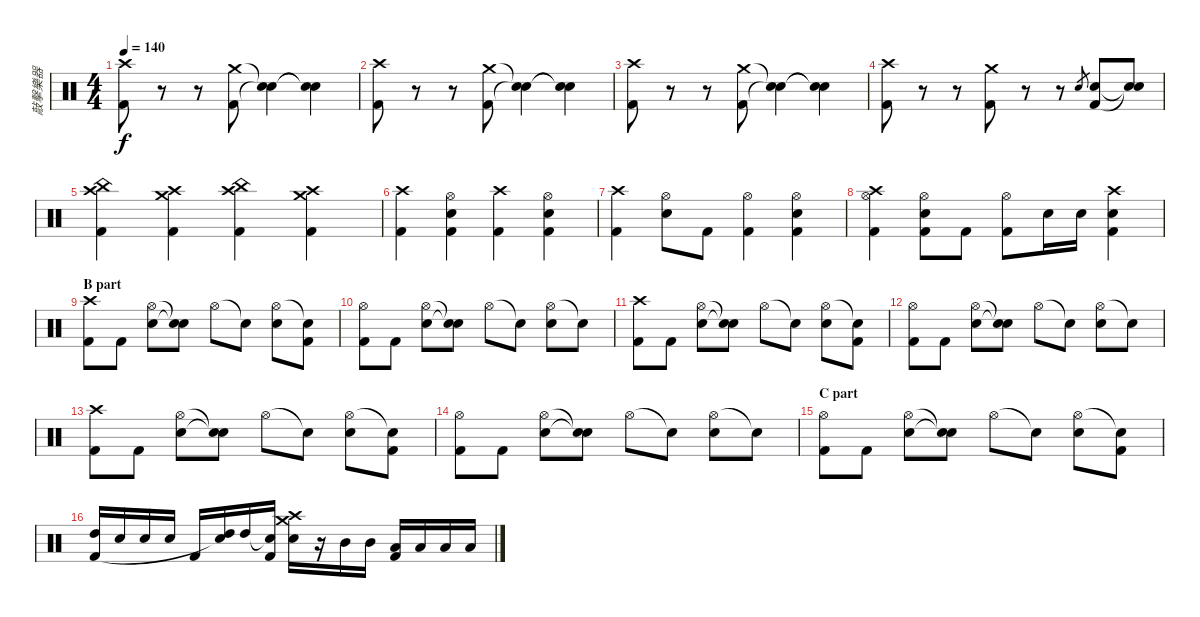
\track ("敲擊樂器" "敲擊樂器") {instrument percussion}
\staff {score}
\articulation defaults
\ts (4 4)
\tempo 140
\clef neutral
\ks c
("Crash high (hit)" "Kick (hit) 2").8{dy f} r.8 r.8 ("Crash medium (hit)" "Kick (hit) 2").8 ("Snare (hit)"{t} "Snare (hit)"{t}).4 ("Snare (hit)"{t} "Snare (hit)"{t}).4 |
("Crash high (hit)" "Kick (hit) 2").8 r.8 r.8 ("Crash medium (hit)" "Kick (hit) 2").8 ("Snare (hit)"{t} "Snare (hit)"{t}).4 ("Snare (hit)"{t} "Snare (hit)"{t}).4 |
("Crash high (hit)" "Kick (hit) 2").8 r.8 r.8 ("Crash medium (hit)" "Kick (hit) 2").8 ("Snare (hit)"{t} "Snare (hit)"{t}).4 ("Snare (hit)"{t} "Snare (hit)"{t}).4 |
("Crash high (hit)" "Kick (hit) 2").8 r.8 r.8 ("Crash medium (hit)" "Kick (hit) 2").8 r.8 r.8 "Snare (hit) 2".8{gr} ("Snare (hit) 2" "Kick (hit) 2").8 ("Snare (hit)"{t} "Snare (hit)"{t}).8 |
("Crash high (hit)" "China (hit)" "Kick (hit) 2").4 ("Crash high (hit)" "Crash medium (hit)" "Kick (hit) 2").4 ("Crash high (hit)" "China (hit)" "Kick (hit) 2").4 ("Crash high (hit)" "Crash medium (hit)" "Kick (hit) 2").4 |
("Crash high (hit)" "Kick (hit) 2").4 ("Hi-Hat (open)" "Snare (hit) 2" "Kick (hit) 2").4 ("Crash high (hit)" "Kick (hit) 2").4 ("Hi-Hat (open)" "Snare (hit) 2" "Kick (hit) 2").4 |
("Crash high (hit)" "Kick (hit) 2").4 ("Hi-Hat (open)" "Snare (hit) 2").8 "Kick (hit) 2".8 ("Hi-Hat (open)" "Kick (hit) 2").4 ("Hi-Hat (open)" "Snare (hit) 2" "Kick (hit) 2").4 |
("Crash high (hit)" "Hi-Hat (open)" "Kick (hit) 2").4 ("Hi-Hat (open)" "Snare (hit) 2" "Kick (hit) 2").8 "Kick (hit) 2".8 ("Hi-Hat (open)" "Kick (hit) 2").8 "Snare (hit) 2".16 "Snare (hit) 2".16 ("Crash high (hit)" "Snare (hit) 2" "Kick (hit) 2").4 |
\section ("" "B part")
("Crash high (hit)" "Kick (hit) 2").8 "Kick (hit) 2".8 ("Hi-Hat (open)" "Snare (hit) 2").8 ("Snare (hit)"{t} "Snare (hit)"{t}).8 "Hi-Hat (open)".8 "Snare (hit)"{t}.8 ("Hi-Hat (open)" "Snare (hit) 2").8 ("Snare (hit)"{t} "Kick (hit) 2").8 |
("Hi-Hat (open)" "Kick (hit) 2").8 "Kick (hit) 2".8 ("Hi-Hat (open)" "Snare (hit) 2").8 ("Snare (hit)"{t} "Snare (hit)"{t}).8 "Hi-Hat (open)".8 "Snare (hit)"{t}.8 ("Hi-Hat (open)" "Snare (hit) 2").8 "Snare (hit)"{t}.8 |
("Crash high (hit)" "Kick (hit) 2").8 "Kick (hit) 2".8 ("Hi-Hat (open)" "Snare (hit) 2").8 ("Snare (hit)"{t} "Snare (hit)"{t}).8 "Hi-Hat (open)".8 "Snare (hit)"{t}.8 ("Hi-Hat (open)" "Snare (hit) 2").8 ("Snare (hit)"{t} "Kick (hit) 2").8 |
("Hi-Hat (open)" "Kick (hit) 2").8 "Kick (hit) 2".8 ("Hi-Hat (open)" "Snare (hit) 2").8 ("Snare (hit)"{t} "Snare (hit)"{t}).8 "Hi-Hat (open)".8 "Snare (hit)"{t}.8 ("Hi-Hat (open)" "Snare (hit) 2").8 "Snare (hit)"{t}.8 |
("Crash high (hit)" "Kick (hit) 2").8 "Kick (hit) 2".8 ("Hi-Hat (open)" "Snare (hit) 2").8 ("Snare (hit)"{t} "Snare (hit)"{t}).8 "Hi-Hat (open)".8 "Snare (hit)"{t}.8 ("Hi-Hat (open)" "Snare (hit) 2").8 ("Snare (hit)"{t} "Kick (hit) 2").8 |
("Hi-Hat (open)" "Kick (hit) 2").8 "Kick (hit) 2".8 ("Hi-Hat (open)" "Snare (hit) 2").8 ("Snare (hit)"{t} "Snare (hit)"{t}).8 "Hi-Hat (open)".8 "Snare (hit)"{t}.8 ("Hi-Hat (open)" "Snare (hit) 2").8 "Snare (hit)"{t}.8 |
\section ("" "C part")
("Hi-Hat (open)" "Kick (hit) 2").8 "Kick (hit) 2".8 ("Hi-Hat (open)" "Snare (hit) 2").8 ("Snare (hit)"{t} "Snare (hit)"{t}).8 "Hi-Hat (open)".8 "Snare (hit)"{t}.8 ("Hi-Hat (open)" "Snare (hit) 2").8 ("Snare (hit)"{t} "Kick (hit) 2").8 |
("High Tom (hit)" "Kick (hit) 2").16 "Snare (hit) 2".16 "Snare (hit) 2".16 "Snare (hit) 2".16 "Kick (hit) 2".16 ("High Tom (hit)" "Snare (hit)"{t}).16 "High Tom (hit)".16 ("Snare (hit)"{t} "Kick (hit) 2").16 ("Crash medium (hit)" "Crash high (hit)" "Snare (hit) 2").16 r.16 "Mid Tom (hit)".16 "Mid Tom (hit)".16 ("Low Tom (hit)" "Kick (hit) 2").16 "Low Tom (hit)".16 "Low Tom (hit)".16 "Low Tom (hit)".16
